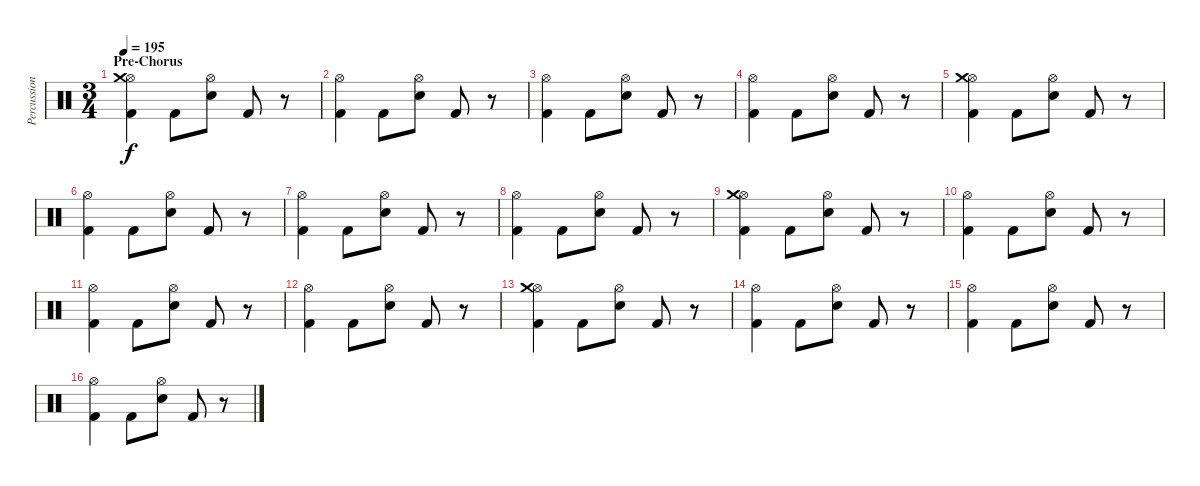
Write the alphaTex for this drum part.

\track ("Percussion" "Percussion") {instrument percussion}
\staff {score}
\articulation defaults
\ts (3 4)
\section ("" "Pre-Chorus")
\tempo 195
\clef neutral
\ks c
("Hi-Hat (open)" "Crash medium (hit)" "Kick (hit) 2").4{dy f} "Kick (hit) 2".8 ("Hi-Hat (open)" "Snare (hit) 2").8 "Kick (hit) 2".8 r.8 |
("Hi-Hat (open)" "Kick (hit) 2").4 "Kick (hit) 2".8 ("Hi-Hat (open)" "Snare (hit) 2").8 "Kick (hit) 2".8 r.8 |
("Hi-Hat (open)" "Kick (hit) 2").4 "Kick (hit) 2".8 ("Hi-Hat (open)" "Snare (hit) 2").8 "Kick (hit) 2".8 r.8 |
("Hi-Hat (open)" "Kick (hit) 2").4 "Kick (hit) 2".8 ("Hi-Hat (open)" "Snare (hit) 2").8 "Kick (hit) 2".8 r.8 |
("Hi-Hat (open)" "Crash medium (hit)" "Kick (hit) 2").4 "Kick (hit) 2".8 ("Hi-Hat (open)" "Snare (hit) 2").8 "Kick (hit) 2".8 r.8 |
("Hi-Hat (open)" "Kick (hit) 2").4 "Kick (hit) 2".8 ("Hi-Hat (open)" "Snare (hit) 2").8 "Kick (hit) 2".8 r.8 |
("Hi-Hat (open)" "Kick (hit) 2").4 "Kick (hit) 2".8 ("Hi-Hat (open)" "Snare (hit) 2").8 "Kick (hit) 2".8 r.8 |
("Hi-Hat (open)" "Kick (hit) 2").4 "Kick (hit) 2".8 ("Hi-Hat (open)" "Snare (hit) 2").8 "Kick (hit) 2".8 r.8 |
("Hi-Hat (open)" "Crash medium (hit)" "Kick (hit) 2").4 "Kick (hit) 2".8 ("Hi-Hat (open)" "Snare (hit) 2").8 "Kick (hit) 2".8 r.8 |
("Hi-Hat (open)" "Kick (hit) 2").4 "Kick (hit) 2".8 ("Hi-Hat (open)" "Snare (hit) 2").8 "Kick (hit) 2".8 r.8 |
("Hi-Hat (open)" "Kick (hit) 2").4 "Kick (hit) 2".8 ("Hi-Hat (open)" "Snare (hit) 2").8 "Kick (hit) 2".8 r.8 |
("Hi-Hat (open)" "Kick (hit) 2").4 "Kick (hit) 2".8 ("Hi-Hat (open)" "Snare (hit) 2").8 "Kick (hit) 2".8 r.8 |
("Hi-Hat (open)" "Crash medium (hit)" "Kick (hit) 2").4 "Kick (hit) 2".8 ("Hi-Hat (open)" "Snare (hit) 2").8 "Kick (hit) 2".8 r.8 |
("Hi-Hat (open)" "Kick (hit) 2").4 "Kick (hit) 2".8 ("Hi-Hat (open)" "Snare (hit) 2").8 "Kick (hit) 2".8 r.8 |
("Hi-Hat (open)" "Kick (hit) 2").4 "Kick (hit) 2".8 ("Hi-Hat (open)" "Snare (hit) 2").8 "Kick (hit) 2".8 r.8 |
("Hi-Hat (open)" "Kick (hit) 2").4 "Kick (hit) 2".8 ("Hi-Hat (open)" "Snare (hit) 2").8 "Kick (hit) 2".8 r.8
